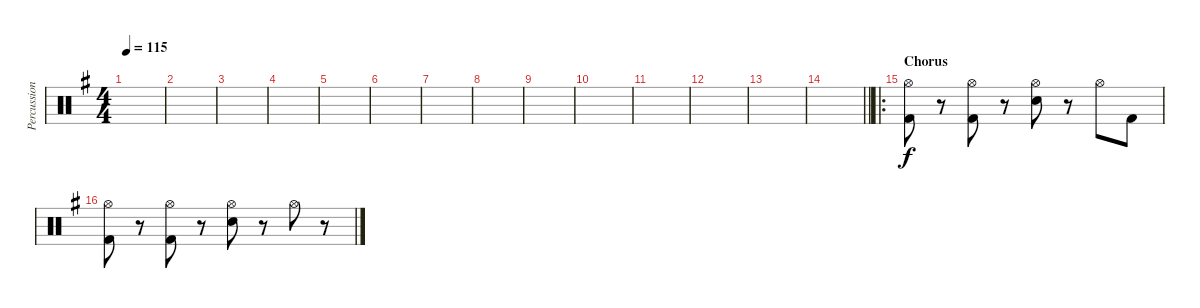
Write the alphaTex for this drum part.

\track ("Percussion" "Percussion") {instrument percussion}
\staff {score}
\articulation defaults
\ts (4 4)
\tempo 115
\clef neutral
\ks g
|
|
|
|
|
|
|
|
|
|
|
|
|
\barLineRight lightlight
|
\ro
\section ("" "Chorus")
("Hi-Hat (open)" "Kick (hit) 2").8 r.8 ("Hi-Hat (open)" "Kick (hit) 2").8 r.8 ("Hi-Hat (open)" "Electric Snare (hit)").8 r.8 "Hi-Hat (open)".8 "Kick (hit) 2".8 |
("Hi-Hat (open)" "Kick (hit) 2").8 r.8 ("Hi-Hat (open)" "Kick (hit) 2").8 r.8 ("Hi-Hat (open)" "Electric Snare (hit)").8 r.8 "Hi-Hat (open)".8 r.8
